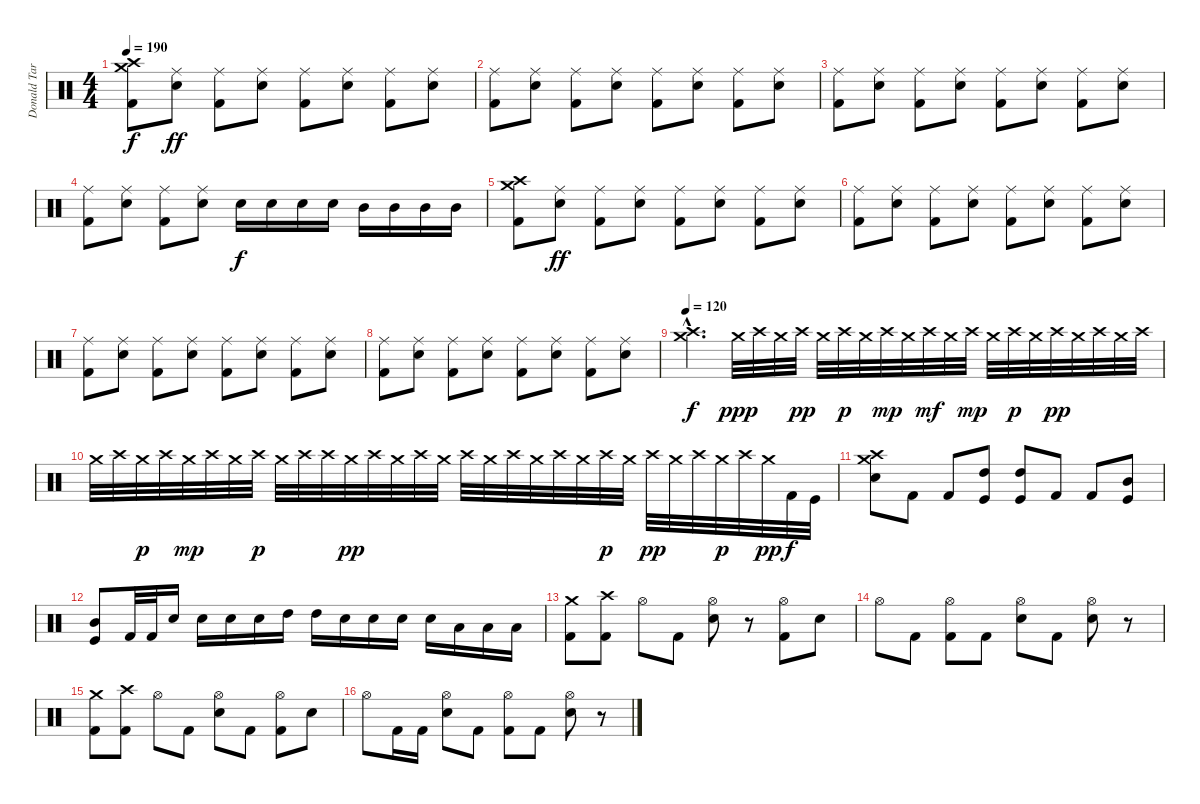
\track ("Donald Tardy (Drums)" "Donald Tar") {instrument percussion}
\staff {score}
\articulation defaults
\ts (4 4)
\tempo 190
\clef neutral
\ks c
("Kick (hit) 2" "Crash medium (hit)" "Crash high (hit)").8{dy f} ("Electric Snare (hit)" "Ride (middle)").8{dy ff} ("Kick (hit) 2" "Ride (middle)").8 ("Electric Snare (hit)" "Ride (middle)").8 ("Kick (hit) 2" "Ride (middle)").8 ("Electric Snare (hit)" "Ride (middle)").8 ("Kick (hit) 2" "Ride (middle)").8 ("Electric Snare (hit)" "Ride (middle)").8 |
("Kick (hit) 2" "Ride (middle)").8 ("Electric Snare (hit)" "Ride (middle)").8 ("Kick (hit) 2" "Ride (middle)").8 ("Electric Snare (hit)" "Ride (middle)").8 ("Kick (hit) 2" "Ride (middle)").8 ("Electric Snare (hit)" "Ride (middle)").8 ("Kick (hit) 2" "Ride (middle)").8 ("Electric Snare (hit)" "Ride (middle)").8 |
("Kick (hit) 2" "Ride (middle)").8 ("Electric Snare (hit)" "Ride (middle)").8 ("Kick (hit) 2" "Ride (middle)").8 ("Electric Snare (hit)" "Ride (middle)").8 ("Kick (hit) 2" "Ride (middle)").8 ("Electric Snare (hit)" "Ride (middle)").8 ("Kick (hit) 2" "Ride (middle)").8 ("Electric Snare (hit)" "Ride (middle)").8 |
("Kick (hit) 2" "Ride (middle)").8 ("Electric Snare (hit)" "Ride (middle)").8 ("Kick (hit) 2" "Ride (middle)").8 ("Electric Snare (hit)" "Ride (middle)").8 "Electric Snare (hit)".16{dy f} "Electric Snare (hit)".16 "Electric Snare (hit)".16 "Electric Snare (hit)".16 "Mid Tom (hit)".16 "Mid Tom (hit)".16 "Mid Tom (hit)".16 "Mid Tom (hit)".16 |
("Kick (hit) 2" "Crash medium (hit)" "Crash high (hit)").8 ("Electric Snare (hit)" "Ride (middle)").8{dy ff} ("Kick (hit) 2" "Ride (middle)").8 ("Electric Snare (hit)" "Ride (middle)").8 ("Kick (hit) 2" "Ride (middle)").8 ("Electric Snare (hit)" "Ride (middle)").8 ("Kick (hit) 2" "Ride (middle)").8 ("Electric Snare (hit)" "Ride (middle)").8 |
("Kick (hit) 2" "Ride (middle)").8 ("Electric Snare (hit)" "Ride (middle)").8 ("Kick (hit) 2" "Ride (middle)").8 ("Electric Snare (hit)" "Ride (middle)").8 ("Kick (hit) 2" "Ride (middle)").8 ("Electric Snare (hit)" "Ride (middle)").8 ("Kick (hit) 2" "Ride (middle)").8 ("Electric Snare (hit)" "Ride (middle)").8 |
("Kick (hit) 2" "Ride (middle)").8 ("Electric Snare (hit)" "Ride (middle)").8 ("Kick (hit) 2" "Ride (middle)").8 ("Electric Snare (hit)" "Ride (middle)").8 ("Kick (hit) 2" "Ride (middle)").8 ("Electric Snare (hit)" "Ride (middle)").8 ("Kick (hit) 2" "Ride (middle)").8 ("Electric Snare (hit)" "Ride (middle)").8 |
("Kick (hit) 2" "Ride (middle)").8 ("Electric Snare (hit)" "Ride (middle)").8 ("Kick (hit) 2" "Ride (middle)").8 ("Electric Snare (hit)" "Ride (middle)").8 ("Kick (hit) 2" "Ride (middle)").8 ("Electric Snare (hit)" "Ride (middle)").8 ("Kick (hit) 2" "Ride (middle)").8 ("Electric Snare (hit)" "Ride (middle)").8 |
\tempo 120
("Crash high (hit)"{hac} "Crash medium (hit)"{hac}).4{d dy f} "Crash medium (hit)".32{dy ppp} "Crash high (hit)".32 "Crash medium (hit)".32 "Crash high (hit)".32{dy pp} "Crash medium (hit)".32 "Crash high (hit)".32{dy p} "Crash medium (hit)".32 "Crash high (hit)".32{dy mp} "Crash medium (hit)".32 "Crash high (hit)".32{dy mf} "Crash medium (hit)".32 "Crash high (hit)".32{dy mp} "Crash medium (hit)".32 "Crash high (hit)".32{dy p} "Crash medium (hit)".32 "Crash high (hit)".32{dy pp} "Crash medium (hit)".32 "Crash high (hit)".32 "Crash medium (hit)".32 "Crash high (hit)".32 |
"Crash medium (hit)".32 "Crash high (hit)".32 "Crash medium (hit)".32{dy p} "Crash high (hit)".32 "Crash medium (hit)".32{dy mp} "Crash high (hit)".32 "Crash medium (hit)".32 "Crash high (hit)".32{dy p} "Crash medium (hit)".32 "Crash high (hit)".32 "Crash high (hit)".32 "Crash medium (hit)".32{dy pp} "Crash high (hit)".32 "Crash medium (hit)".32 "Crash high (hit)".32 "Crash medium (hit)".32 "Crash high (hit)".32 "Crash medium (hit)".32 "Crash high (hit)".32 "Crash medium (hit)".32 "Crash high (hit)".32 "Crash medium (hit)".32 "Crash high (hit)".32{dy p} "Crash medium (hit)".32 "Crash high (hit)".32{dy pp} "Crash medium (hit)".32 "Crash high (hit)".32 "Crash medium (hit)".32{dy p} "Crash high (hit)".32 "Crash medium (hit)".32{dy pp} "Kick (hit) 2".32{dy f volume 14} "Kick (hit)".32 |
("Electric Snare (hit)" "Crash high (hit)" "Crash medium (hit)").8 "Kick (hit) 2".8 "Kick (hit) 2".8 ("High Tom (hit)" "Kick (hit)").8 ("High Tom (hit)" "Kick (hit)").8 "Kick (hit) 2".8 "Kick (hit) 2".8 ("Mid Tom (hit)" "Kick (hit)").8 |
("Mid Tom (hit)" "Kick (hit)").8 "Kick (hit) 2".32 "Kick (hit) 2".32 "Electric Snare (hit)".16 "Electric Snare (hit)".16 "Electric Snare (hit)".16 "Electric Snare (hit)".16 "High Tom (hit)".16 "High Tom (hit)".16 "Electric Snare (hit)".16 "Electric Snare (hit)".16 "Electric Snare (hit)".16 "Electric Snare (hit)".16 "Low Tom (hit)".16 "Low Tom (hit)".16 "Low Tom (hit)".16 |
("Crash medium (hit)" "Kick (hit) 2").8 ("Crash high (hit)" "Kick (hit) 2").8 "Hi-Hat (open)".8 "Kick (hit) 2".8 ("Electric Snare (hit)" "Hi-Hat (open)").8 r.8 ("Kick (hit) 2" "Hi-Hat (open)").8 "Electric Snare (hit)".8 |
"Hi-Hat (open)".8 "Kick (hit) 2".8 ("Kick (hit) 2" "Hi-Hat (open)").8 "Kick (hit) 2".8 ("Electric Snare (hit)" "Hi-Hat (open)").8 "Kick (hit) 2".8 ("Electric Snare (hit)" "Hi-Hat (open)").8 r.8 |
("Kick (hit) 2" "Crash medium (hit)").8 ("Kick (hit) 2" "Crash high (hit)").8 "Hi-Hat (open)".8 "Kick (hit) 2".8 ("Electric Snare (hit)" "Hi-Hat (open)").8 "Kick (hit) 2".8 ("Kick (hit) 2" "Hi-Hat (open)").8 "Electric Snare (hit)".8 |
"Hi-Hat (open)".8 "Kick (hit) 2".16 "Kick (hit) 2".16 ("Electric Snare (hit)" "Hi-Hat (open)").8 "Kick (hit) 2".8 ("Kick (hit) 2" "Hi-Hat (open)").8 "Kick (hit) 2".8 ("Electric Snare (hit)" "Hi-Hat (open)").8 r.8
